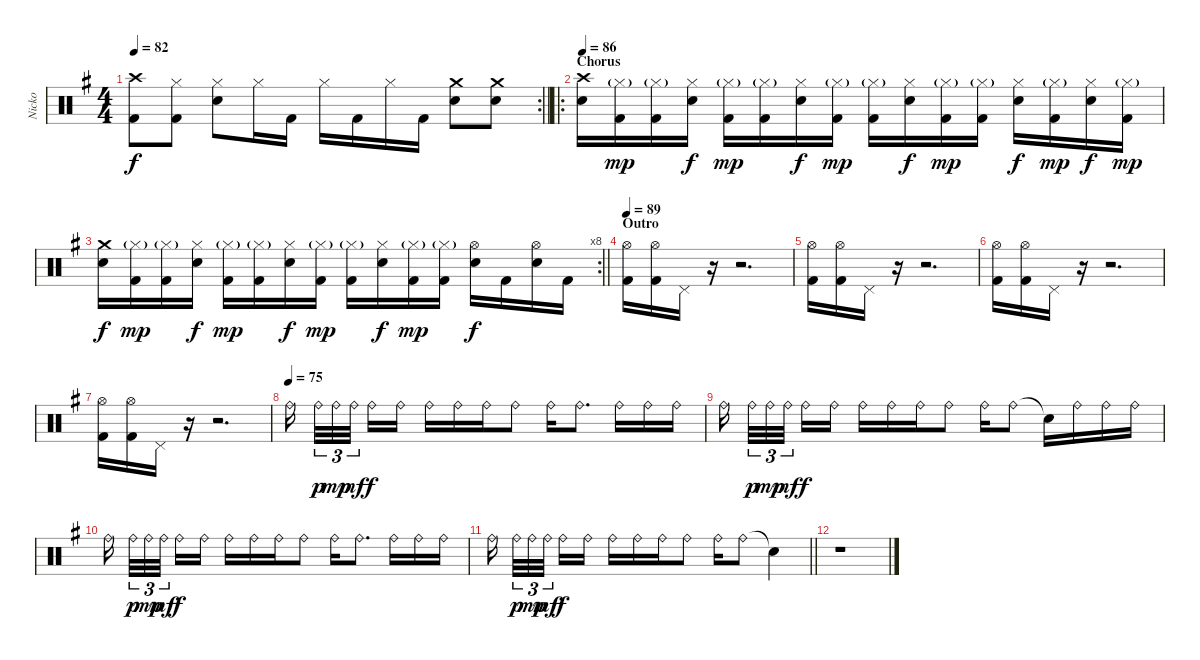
\track ("Nicko" "Nicko") {instrument percussion}
\staff {score}
\articulation defaults
\rc 2
\ts (4 4)
\tempo 82
\clef neutral
\barLineRight lightlight
\ks eminor
("Crash high (hit)" "Kick (hit) 2").8{dy f} ("Hi-Hat (closed)" "Kick (hit) 2").8 ("Hi-Hat (closed)" "Snare (hit) 2").8 "Hi-Hat (closed)".16 "Kick (hit) 2".16 "Hi-Hat (closed)".16 "Kick (hit) 2".16 "Hi-Hat (closed)".16 "Kick (hit) 2".16 ("Crash medium (hit)" "Snare (hit) 2").8 ("Crash medium (hit)" "Snare (hit) 2").8 |
\ro
\section ("" "Chorus")
\tempo 86
("Crash high (hit)" "Snare (hit) 2").16 ("Hi-Hat (closed)"{g} "Kick (hit) 2").16{dy mp} ("Hi-Hat (closed)"{g} "Kick (hit) 2").16 ("Hi-Hat (closed)" "Snare (hit) 2").16{dy f} ("Hi-Hat (closed)"{g} "Kick (hit) 2").16{dy mp} ("Hi-Hat (closed)"{g} "Kick (hit) 2").16 ("Hi-Hat (closed)" "Snare (hit) 2").16{dy f} ("Hi-Hat (closed)"{g} "Kick (hit) 2").16{dy mp} ("Hi-Hat (closed)"{g} "Kick (hit) 2").16 ("Hi-Hat (closed)" "Snare (hit) 2").16{dy f} ("Hi-Hat (closed)"{g} "Kick (hit) 2").16{dy mp} ("Hi-Hat (closed)"{g} "Kick (hit) 2").16 ("Hi-Hat (closed)" "Snare (hit) 2").16{dy f} ("Hi-Hat (closed)"{g} "Kick (hit) 2").16{dy mp} ("Hi-Hat (closed)" "Snare (hit) 2").16{dy f} ("Hi-Hat (closed)"{g} "Kick (hit) 2").16{dy mp} |
\rc 8
\barLineRight lightlight
("Crash medium (hit)" "Snare (hit) 2").16{dy f} ("Hi-Hat (closed)"{g} "Kick (hit) 2").16{dy mp} ("Hi-Hat (closed)"{g} "Kick (hit) 2").16 ("Hi-Hat (closed)" "Snare (hit) 2").16{dy f} ("Hi-Hat (closed)"{g} "Kick (hit) 2").16{dy mp} ("Hi-Hat (closed)"{g} "Kick (hit) 2").16 ("Hi-Hat (closed)" "Snare (hit) 2").16{dy f} ("Hi-Hat (closed)"{g} "Kick (hit) 2").16{dy mp} ("Hi-Hat (closed)"{g} "Kick (hit) 2").16 ("Hi-Hat (closed)" "Snare (hit) 2").16{dy f} ("Hi-Hat (closed)"{g} "Kick (hit) 2").16{dy mp} ("Hi-Hat (closed)"{g} "Kick (hit) 2").16 ("Hi-Hat (open)" "Snare (hit) 2").16{dy f} "Kick (hit) 2".16 ("Hi-Hat (open)" "Snare (hit) 2").16 "Kick (hit) 2".16 |
\section ("" "Outro")
\tempo 89
("Hi-Hat (open)" "Kick (hit) 2").16 ("Hi-Hat (open)" "Kick (hit) 2").16 "Pedal Hi-Hat (hit)".16 r.16 r.2{d} |
("Hi-Hat (open)" "Kick (hit) 2").16 ("Hi-Hat (open)" "Kick (hit) 2").16 "Pedal Hi-Hat (hit)".16 r.16 r.2{d} |
("Hi-Hat (open)" "Kick (hit) 2").16 ("Hi-Hat (open)" "Kick (hit) 2").16 "Pedal Hi-Hat (hit)".16 r.16 r.2{d} |
("Hi-Hat (open)" "Kick (hit) 2").16 ("Hi-Hat (open)" "Kick (hit) 2").16 "Pedal Hi-Hat (hit)".16 r.16 r.2{d} |
\tempo (75)
"Ride (bell)".16{beam splitsecondary} "Ride (bell)".32{tu (3 2) dy p} "Ride (bell)".32{tu (3 2) dy mp} "Ride (bell)".32{tu (3 2) dy mf beam splitsecondary} "Ride (bell)".16{dy f} "Ride (bell)".16 "Ride (bell)".16 "Ride (bell)".16 "Ride (bell)".16 "Ride (bell)".8 "Ride (bell)".16 "Ride (bell)".8{d} "Ride (bell)".16 "Ride (bell)".16 "Ride (bell)".16 |
"Ride (bell)".16{beam splitsecondary} "Ride (bell)".32{tu (3 2) dy p} "Ride (bell)".32{tu (3 2) dy mp} "Ride (bell)".32{tu (3 2) dy mf beam splitsecondary} "Ride (bell)".16{dy f} "Ride (bell)".16 "Ride (bell)".16 "Ride (bell)".16 "Ride (bell)".16 "Ride (bell)".8 "Ride (bell)".16 "Ride (bell)".8 "Snare (hit)"{t}.16 "Ride (bell)".16 "Ride (bell)".16 "Ride (bell)".16 |
"Ride (bell)".16{beam splitsecondary} "Ride (bell)".32{tu (3 2) dy p} "Ride (bell)".32{tu (3 2) dy mp} "Ride (bell)".32{tu (3 2) dy mf beam splitsecondary} "Ride (bell)".16{dy f} "Ride (bell)".16 "Ride (bell)".16 "Ride (bell)".16 "Ride (bell)".16 "Ride (bell)".8 "Ride (bell)".16 "Ride (bell)".8{d} "Ride (bell)".16 "Ride (bell)".16 "Ride (bell)".16 |
\barLineRight lightlight "Ride (bell)".16{beam splitsecondary} "Ride (bell)".32{tu (3 2) dy p} "Ride (bell)".32{tu (3 2) dy mp} "Ride (bell)".32{tu (3 2) dy mf beam splitsecondary} "Ride (bell)".16{dy f} "Ride (bell)".16 "Ride (bell)".16 "Ride (bell)".16 "Ride (bell)".16 "Ride (bell)".8 "Ride (bell)".16 "Ride (bell)".8 "Snare (hit)"{t}.4
|
r.1
